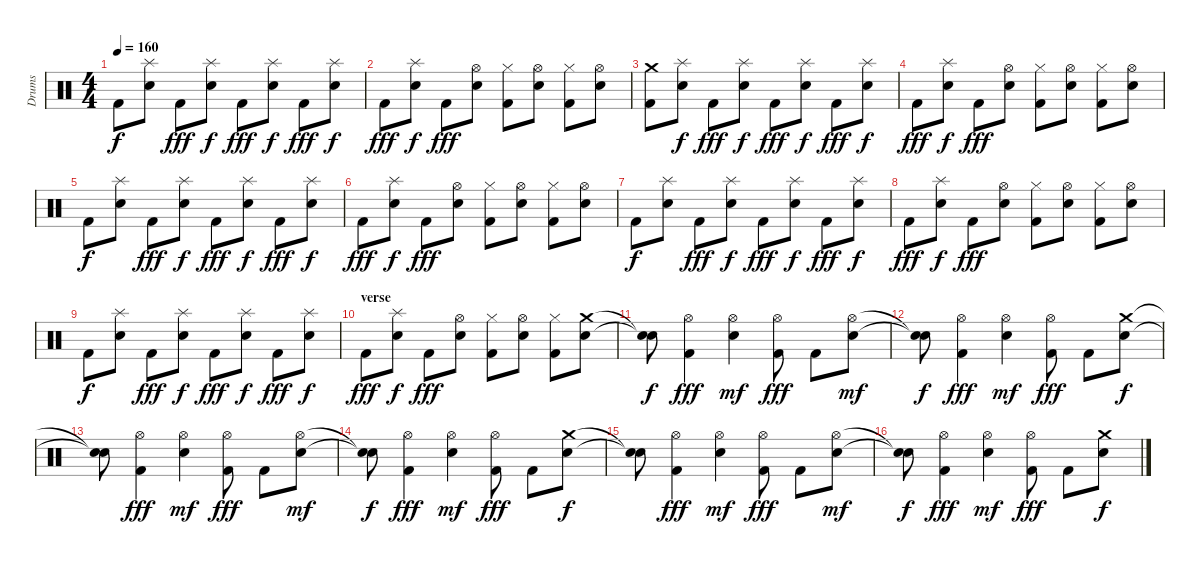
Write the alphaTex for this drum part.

\track ("Drums" "Drums") {instrument percussion}
\staff {score}
\articulation defaults
\ts (4 4)
\tempo 160
\clef neutral
\ks c "Kick (hit) 2".8{dy f}
("Splash (hit)" "Electric Snare (hit)").8 "Kick (hit) 2".8{dy fff} ("Splash (hit)" "Electric Snare (hit)").8{dy f} "Kick (hit) 2".8{dy fff} ("Splash (hit)" "Electric Snare (hit)").8{dy f} "Kick (hit) 2".8{dy fff} ("Splash (hit)" "Electric Snare (hit)").8{dy f} |
"Kick (hit) 2".8{dy fff} ("Splash (hit)" "Electric Snare (hit)").8{dy f} "Kick (hit) 2".8{dy fff} ("Hi-Hat (open)" "Electric Snare (hit)").8 ("Hi-Hat (closed)" "Kick (hit) 2").8 ("Hi-Hat (open)" "Electric Snare (hit)").8 ("Hi-Hat (closed)" "Kick (hit) 2").8 ("Hi-Hat (open)" "Electric Snare (hit)").8 |
("Crash medium (hit)" "Kick (hit) 2").8 ("Splash (hit)" "Electric Snare (hit)").8{dy f} "Kick (hit) 2".8{dy fff} ("Splash (hit)" "Electric Snare (hit)").8{dy f} "Kick (hit) 2".8{dy fff} ("Splash (hit)" "Electric Snare (hit)").8{dy f} "Kick (hit) 2".8{dy fff} ("Splash (hit)" "Electric Snare (hit)").8{dy f} |
"Kick (hit) 2".8{dy fff} ("Splash (hit)" "Electric Snare (hit)").8{dy f} "Kick (hit) 2".8{dy fff} ("Hi-Hat (open)" "Electric Snare (hit)").8 ("Hi-Hat (closed)" "Kick (hit) 2").8 ("Hi-Hat (open)" "Electric Snare (hit)").8 ("Hi-Hat (closed)" "Kick (hit) 2").8 ("Hi-Hat (open)" "Electric Snare (hit)").8 |
"Kick (hit) 2".8{dy f} ("Splash (hit)" "Electric Snare (hit)").8 "Kick (hit) 2".8{dy fff} ("Splash (hit)" "Electric Snare (hit)").8{dy f} "Kick (hit) 2".8{dy fff} ("Splash (hit)" "Electric Snare (hit)").8{dy f} "Kick (hit) 2".8{dy fff} ("Splash (hit)" "Electric Snare (hit)").8{dy f} |
"Kick (hit) 2".8{dy fff} ("Splash (hit)" "Electric Snare (hit)").8{dy f} "Kick (hit) 2".8{dy fff} ("Hi-Hat (open)" "Electric Snare (hit)").8 ("Hi-Hat (closed)" "Kick (hit) 2").8 ("Hi-Hat (open)" "Electric Snare (hit)").8 ("Hi-Hat (closed)" "Kick (hit) 2").8 ("Hi-Hat (open)" "Electric Snare (hit)").8 |
"Kick (hit) 2".8{dy f} ("Splash (hit)" "Electric Snare (hit)").8 "Kick (hit) 2".8{dy fff} ("Splash (hit)" "Electric Snare (hit)").8{dy f} "Kick (hit) 2".8{dy fff} ("Splash (hit)" "Electric Snare (hit)").8{dy f} "Kick (hit) 2".8{dy fff} ("Splash (hit)" "Electric Snare (hit)").8{dy f} |
"Kick (hit) 2".8{dy fff} ("Splash (hit)" "Electric Snare (hit)").8{dy f} "Kick (hit) 2".8{dy fff} ("Hi-Hat (open)" "Electric Snare (hit)").8 ("Hi-Hat (closed)" "Kick (hit) 2").8 ("Hi-Hat (open)" "Electric Snare (hit)").8 ("Hi-Hat (closed)" "Kick (hit) 2").8 ("Hi-Hat (open)" "Electric Snare (hit)").8 |
"Kick (hit) 2".8{dy f} ("Splash (hit)" "Electric Snare (hit)").8 "Kick (hit) 2".8{dy fff} ("Splash (hit)" "Electric Snare (hit)").8{dy f} "Kick (hit) 2".8{dy fff} ("Splash (hit)" "Electric Snare (hit)").8{dy f} "Kick (hit) 2".8{dy fff} ("Splash (hit)" "Electric Snare (hit)").8{dy f} |
\section ("" "verse")
"Kick (hit) 2".8{dy fff} ("Splash (hit)" "Electric Snare (hit)").8{dy f} "Kick (hit) 2".8{dy fff} ("Hi-Hat (open)" "Electric Snare (hit)").8 ("Hi-Hat (closed)" "Kick (hit) 2").8 ("Hi-Hat (open)" "Electric Snare (hit)").8 ("Hi-Hat (closed)" "Kick (hit) 2").8 ("Crash medium (hit)" "Electric Snare (hit)").8 |
("Snare (hit)"{t} "Snare (hit)"{t}).8{dy f} ("Hi-Hat (open)" "Kick (hit) 2").4{dy fff} ("Hi-Hat (open)" "Electric Snare (hit)").4{dy mf} ("Hi-Hat (open)" "Kick (hit) 2").8{dy fff} "Kick (hit) 2".8 ("Hi-Hat (open)" "Electric Snare (hit)").8{dy mf} |
("Snare (hit)"{t} "Snare (hit)"{t}).8{dy f} ("Hi-Hat (open)" "Kick (hit) 2").4{dy fff} ("Hi-Hat (open)" "Electric Snare (hit)").4{dy mf} ("Hi-Hat (open)" "Kick (hit) 2").8{dy fff} "Kick (hit) 2".8 ("Crash medium (hit)" "Electric Snare (hit)").8{dy f} |
("Snare (hit)"{t} "Snare (hit)"{t}).8 ("Hi-Hat (open)" "Kick (hit) 2").4{dy fff} ("Hi-Hat (open)" "Electric Snare (hit)").4{dy mf} ("Hi-Hat (open)" "Kick (hit) 2").8{dy fff} "Kick (hit) 2".8 ("Hi-Hat (open)" "Electric Snare (hit)").8{dy mf} |
("Snare (hit)"{t} "Snare (hit)"{t}).8{dy f} ("Hi-Hat (open)" "Kick (hit) 2").4{dy fff} ("Hi-Hat (open)" "Electric Snare (hit)").4{dy mf} ("Hi-Hat (open)" "Kick (hit) 2").8{dy fff} "Kick (hit) 2".8 ("Crash medium (hit)" "Electric Snare (hit)").8{dy f} |
("Snare (hit)"{t} "Snare (hit)"{t}).8 ("Hi-Hat (open)" "Kick (hit) 2").4{dy fff} ("Hi-Hat (open)" "Electric Snare (hit)").4{dy mf} ("Hi-Hat (open)" "Kick (hit) 2").8{dy fff} "Kick (hit) 2".8 ("Hi-Hat (open)" "Electric Snare (hit)").8{dy mf} |
("Snare (hit)"{t} "Snare (hit)"{t}).8{dy f} ("Hi-Hat (open)" "Kick (hit) 2").4{dy fff} ("Hi-Hat (open)" "Electric Snare (hit)").4{dy mf} ("Hi-Hat (open)" "Kick (hit) 2").8{dy fff} "Kick (hit) 2".8 ("Crash medium (hit)" "Electric Snare (hit)").8{dy f}
